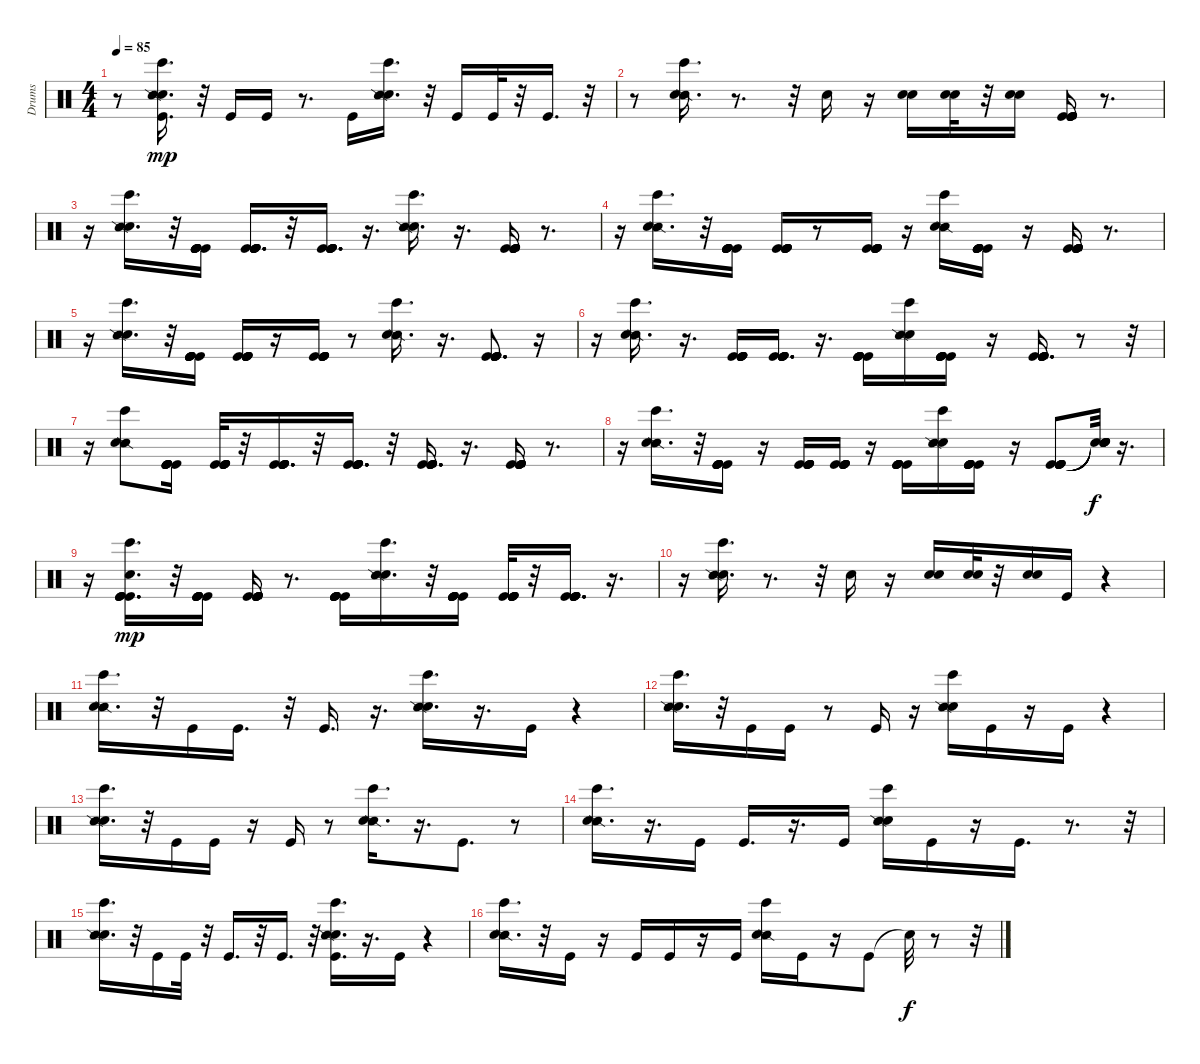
\track ("Drums" "Drums") {instrument percussion}
\staff {score}
\articulation defaults
\ts (4 4)
\tempo 85
\clef neutral
\ks c
r.8{dy f} ("Bongo High (hit)" "Electric Snare (hit)" "Kick (hit)" "Snare (side stick) 2").16{d dy mp} r.32 "Kick (hit)".16 "Kick (hit)".16 r.8{d} "Kick (hit)".16 ("Electric Snare (hit)" "Snare (side stick) 2" "Bongo High (hit)").16{d} r.32 "Kick (hit)".16 "Kick (hit)".32 r.32 "Kick (hit)".16{d} r.32 |
r.8 ("Snare (side stick) 2" "Bongo High (hit)" "Electric Snare (hit)").16{d} r.8{d} r.32 "Electric Snare (hit)".16 r.16 ("Electric Snare (hit)" "Electric Snare (hit)").16 ("Electric Snare (hit)" "Electric Snare (hit)").32 r.32 ("Electric Snare (hit)" "Electric Snare (hit)").16 ("Kick (hit)" "Kick (hit)" "Kick (hit)" "Kick (hit)" "Kick (hit)").16 r.8{d} |
r.16 ("Electric Snare (hit)" "Bongo High (hit)" "Snare (side stick) 2").16{d} r.32 ("Kick (hit)" "Kick (hit)" "Kick (hit)" "Kick (hit)" "Kick (hit)" "Kick (hit)").16 ("Kick (hit)" "Kick (hit)" "Kick (hit)" "Kick (hit)" "Kick (hit)" "Kick (hit)").16{d} r.32 ("Kick (hit)" "Kick (hit)" "Kick (hit)" "Kick (hit)" "Kick (hit)" "Kick (hit)").16{d} r.16{d} ("Bongo High (hit)" "Electric Snare (hit)" "Snare (side stick) 2").16{d} r.16{d} ("Kick (hit)" "Kick (hit)" "Kick (hit)" "Kick (hit)" "Kick (hit)" "Kick (hit)").16 r.8{d} |
r.16 ("Snare (side stick) 2" "Electric Snare (hit)" "Bongo High (hit)").16{d} r.32 ("Kick (hit)" "Kick (hit)" "Kick (hit)" "Kick (hit)" "Kick (hit)" "Kick (hit)").16 ("Kick (hit)" "Kick (hit)" "Kick (hit)" "Kick (hit)" "Kick (hit)" "Kick (hit)").16 r.8 ("Kick (hit)" "Kick (hit)" "Kick (hit)" "Kick (hit)" "Kick (hit)" "Kick (hit)").16 r.16 ("Bongo High (hit)" "Snare (side stick) 2" "Electric Snare (hit)").16 ("Kick (hit)" "Kick (hit)" "Kick (hit)" "Kick (hit)" "Kick (hit)" "Kick (hit)").16 r.16 ("Kick (hit)" "Kick (hit)" "Kick (hit)" "Kick (hit)" "Kick (hit)" "Kick (hit)").16 r.8{d} |
r.16 ("Bongo High (hit)" "Electric Snare (hit)" "Snare (side stick) 2").16{d} r.32 ("Kick (hit)" "Kick (hit)" "Kick (hit)" "Kick (hit)" "Kick (hit)" "Kick (hit)").16 ("Kick (hit)" "Kick (hit)" "Kick (hit)" "Kick (hit)" "Kick (hit)" "Kick (hit)").16 r.16 ("Kick (hit)" "Kick (hit)" "Kick (hit)" "Kick (hit)" "Kick (hit)" "Kick (hit)").16 r.8 ("Snare (side stick) 2" "Electric Snare (hit)" "Bongo High (hit)").16{d} r.16{d} ("Kick (hit)" "Kick (hit)" "Kick (hit)" "Kick (hit)" "Kick (hit)" "Kick (hit)").8{d} r.16 |
r.16 ("Snare (side stick) 2" "Electric Snare (hit)" "Bongo High (hit)").16{d} r.16{d} ("Kick (hit)" "Kick (hit)" "Kick (hit)" "Kick (hit)" "Kick (hit)" "Kick (hit)").16 ("Kick (hit)" "Kick (hit)" "Kick (hit)" "Kick (hit)" "Kick (hit)" "Kick (hit)").16{d} r.16{d} ("Kick (hit)" "Kick (hit)" "Kick (hit)" "Kick (hit)" "Kick (hit)" "Kick (hit)").16 ("Electric Snare (hit)" "Bongo High (hit)" "Snare (side stick) 2").16 ("Kick (hit)" "Kick (hit)" "Kick (hit)" "Kick (hit)" "Kick (hit)" "Kick (hit)").16 r.16 ("Kick (hit)" "Kick (hit)" "Kick (hit)" "Kick (hit)" "Kick (hit)" "Kick (hit)").16{d} r.8 r.32 |
r.16 ("Snare (side stick) 2" "Electric Snare (hit)" "Bongo High (hit)").8 ("Kick (hit)" "Kick (hit)" "Kick (hit)" "Kick (hit)" "Kick (hit)" "Kick (hit)").16 ("Kick (hit)" "Kick (hit)" "Kick (hit)" "Kick (hit)" "Kick (hit)" "Kick (hit)").32 r.32 ("Kick (hit)" "Kick (hit)" "Kick (hit)" "Kick (hit)" "Kick (hit)" "Kick (hit)").16{d} r.32 ("Kick (hit)" "Kick (hit)" "Kick (hit)" "Kick (hit)" "Kick (hit)" "Kick (hit)").16{d} r.32 ("Kick (hit)" "Kick (hit)" "Kick (hit)" "Kick (hit)" "Kick (hit)" "Kick (hit)").16{d} r.16{d} ("Kick (hit)" "Kick (hit)" "Kick (hit)" "Kick (hit)" "Kick (hit)" "Kick (hit)").16 r.8{d} |
r.16 ("Snare (side stick) 2" "Electric Snare (hit)" "Bongo High (hit)").16{d} r.32 ("Kick (hit)" "Kick (hit)" "Kick (hit)" "Kick (hit)" "Kick (hit)" "Kick (hit)").16 r.16 ("Kick (hit)" "Kick (hit)" "Kick (hit)" "Kick (hit)" "Kick (hit)" "Kick (hit)").16 ("Kick (hit)" "Kick (hit)" "Kick (hit)" "Kick (hit)" "Kick (hit)" "Kick (hit)").16 r.16 ("Kick (hit)" "Kick (hit)" "Kick (hit)" "Kick (hit)" "Kick (hit)" "Kick (hit)").16 ("Electric Snare (hit)" "Bongo High (hit)" "Snare (side stick) 2").16 ("Kick (hit)" "Kick (hit)" "Kick (hit)" "Kick (hit)" "Kick (hit)" "Kick (hit)").16 r.16 ("Kick (hit)" "Kick (hit)" "Kick (hit)" "Kick (hit)" "Kick (hit)" "Kick (hit)").8 ("Snare (hit)"{t} "Snare (hit)"{t} "Snare (hit)"{t} "Snare (hit)"{t} "Snare (hit)"{t} "Snare (hit)"{t}).32{dy f} r.16{d} |
r.16 ("Electric Snare (hit)" "Bongo High (hit)" "Kick (hit)" "Kick (hit)" "Kick (hit)" "Kick (hit)").16{d dy mp} r.32 ("Kick (hit)" "Kick (hit)" "Kick (hit)" "Kick (hit)" "Kick (hit)" "Kick (hit)").16 ("Kick (hit)" "Kick (hit)" "Kick (hit)" "Kick (hit)" "Kick (hit)" "Kick (hit)").16 r.8{d} ("Kick (hit)" "Kick (hit)" "Kick (hit)" "Kick (hit)" "Kick (hit)" "Kick (hit)").16 ("Electric Snare (hit)" "Bongo High (hit)" "Snare (side stick) 2").16{d} r.32 ("Kick (hit)" "Kick (hit)" "Kick (hit)" "Kick (hit)" "Kick (hit)" "Kick (hit)").16 ("Kick (hit)" "Kick (hit)" "Kick (hit)" "Kick (hit)" "Kick (hit)" "Kick (hit)").32 r.32 ("Kick (hit)" "Kick (hit)" "Kick (hit)" "Kick (hit)" "Kick (hit)" "Kick (hit)").16{d} r.16{d} |
r.16 ("Electric Snare (hit)" "Bongo High (hit)" "Snare (side stick) 2").16{d} r.8{d} r.32 "Electric Snare (hit)".16 r.16 ("Electric Snare (hit)" "Electric Snare (hit)").16 ("Electric Snare (hit)" "Electric Snare (hit)").32 r.32 ("Electric Snare (hit)" "Electric Snare (hit)").16 "Kick (hit)".16 r.4 |
("Snare (side stick) 2" "Bongo High (hit)" "Electric Snare (hit)").16{d} r.32 "Kick (hit)".16 "Kick (hit)".16{d} r.32 "Kick (hit)".16{d} r.16{d} ("Electric Snare (hit)" "Bongo High (hit)" "Snare (side stick) 2").16{d} r.16{d} "Kick (hit)".16 r.4 |
("Bongo High (hit)" "Electric Snare (hit)" "Snare (side stick) 2").16{d} r.32 "Kick (hit)".16 "Kick (hit)".16 r.8 "Kick (hit)".16 r.16 ("Bongo High (hit)" "Electric Snare (hit)" "Snare (side stick) 2").16 "Kick (hit)".16 r.16 "Kick (hit)".16 r.4 |
("Electric Snare (hit)" "Bongo High (hit)" "Snare (side stick) 2").16{d} r.32 "Kick (hit)".16 "Kick (hit)".16 r.16 "Kick (hit)".16 r.8 ("Snare (side stick) 2" "Bongo High (hit)" "Electric Snare (hit)").16{d} r.16{d} "Kick (hit)".8{d} r.8 |
("Snare (side stick) 2" "Bongo High (hit)" "Electric Snare (hit)").16{d} r.16{d} "Kick (hit)".16 "Kick (hit)".16{d} r.16{d} "Kick (hit)".16 ("Bongo High (hit)" "Electric Snare (hit)" "Snare (side stick) 2").16 "Kick (hit)".16 r.16 "Kick (hit)".16{d} r.8{d} r.32 |
("Electric Snare (hit)" "Snare (side stick) 2" "Bongo High (hit)").16{d} r.32 "Kick (hit)".16 "Kick (hit)".32 r.32 "Kick (hit)".16{d} r.32 "Kick (hit)".16{d} r.32 ("Electric Snare (hit)" "Snare (side stick) 2" "Kick (hit)" "Bongo High (hit)").16{d} r.16{d} "Kick (hit)".16 r.4 |
("Bongo High (hit)" "Snare (side stick) 2" "Electric Snare (hit)").16{d} r.32 "Kick (hit)".16 r.16 "Kick (hit)".16 "Kick (hit)".16 r.16 "Kick (hit)".16 ("Bongo High (hit)" "Snare (side stick) 2" "Electric Snare (hit)").16 "Kick (hit)".16 r.16 "Kick (hit)".8 "Snare (hit)"{t}.32{dy f} r.8 r.32
